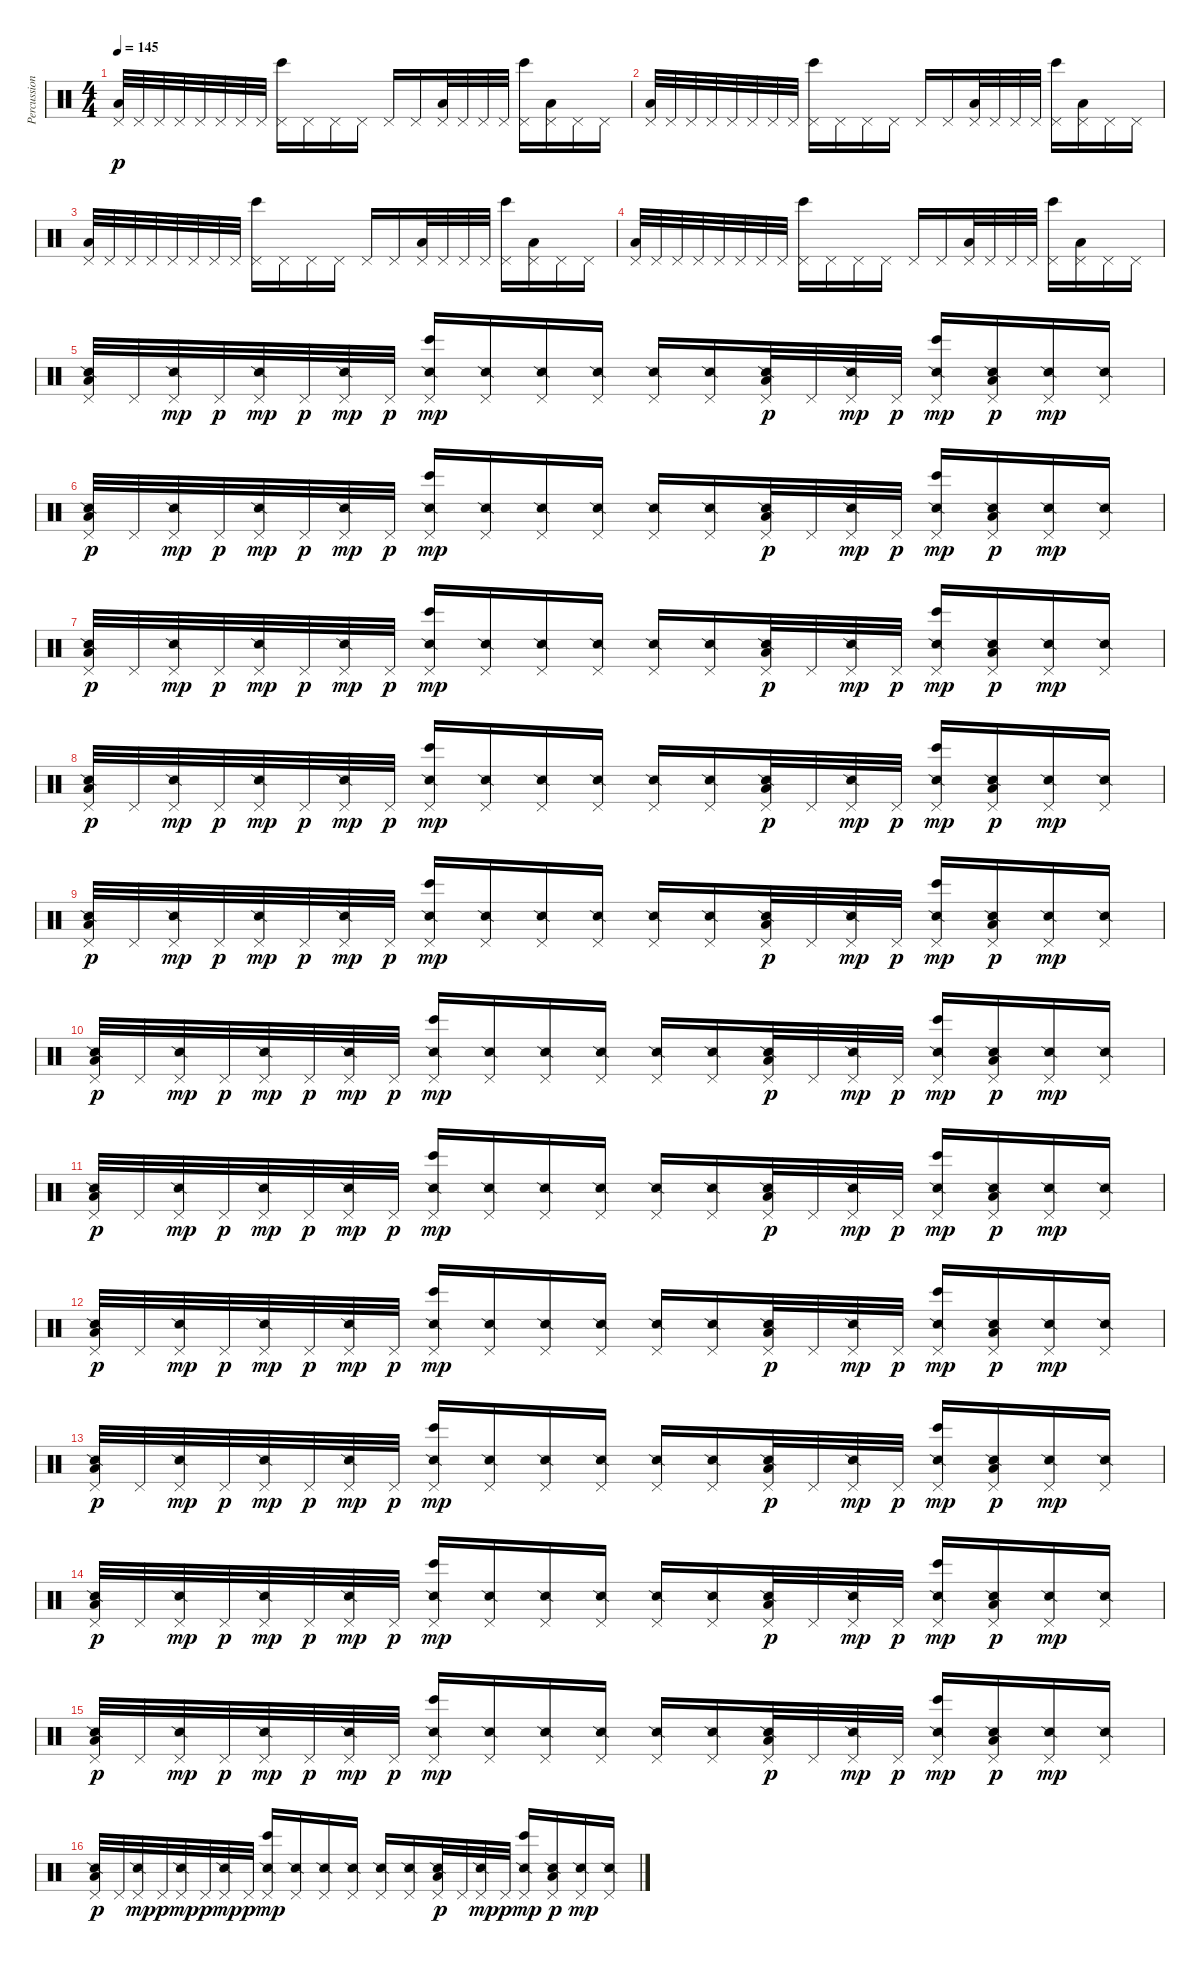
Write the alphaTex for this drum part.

\track ("Percussion" "Percussion") {instrument percussion}
\staff {score}
\articulation defaults
\ts (4 4)
\tempo 145
\clef neutral
\ks c
("Pedal Hi-Hat (hit)" "Low Tom (hit)").32{dy p} "Pedal Hi-Hat (hit)".32 "Pedal Hi-Hat (hit)".32 "Pedal Hi-Hat (hit)".32 "Pedal Hi-Hat (hit)".32 "Pedal Hi-Hat (hit)".32 "Pedal Hi-Hat (hit)".32 "Pedal Hi-Hat (hit)".32 ("Pedal Hi-Hat (hit)" "Bongo High (hit)").16 "Pedal Hi-Hat (hit)".16 "Pedal Hi-Hat (hit)".16 "Pedal Hi-Hat (hit)".16 "Pedal Hi-Hat (hit)".16 "Pedal Hi-Hat (hit)".16 ("Pedal Hi-Hat (hit)" "Low Tom (hit)").32 "Pedal Hi-Hat (hit)".32 "Pedal Hi-Hat (hit)".32 "Pedal Hi-Hat (hit)".32 ("Pedal Hi-Hat (hit)" "Bongo High (hit)").16 ("Pedal Hi-Hat (hit)" "Low Tom (hit)").16 "Pedal Hi-Hat (hit)".16 "Pedal Hi-Hat (hit)".16 |
("Pedal Hi-Hat (hit)" "Low Tom (hit)").32 "Pedal Hi-Hat (hit)".32 "Pedal Hi-Hat (hit)".32 "Pedal Hi-Hat (hit)".32 "Pedal Hi-Hat (hit)".32 "Pedal Hi-Hat (hit)".32 "Pedal Hi-Hat (hit)".32 "Pedal Hi-Hat (hit)".32 ("Pedal Hi-Hat (hit)" "Bongo High (hit)").16 "Pedal Hi-Hat (hit)".16 "Pedal Hi-Hat (hit)".16 "Pedal Hi-Hat (hit)".16 "Pedal Hi-Hat (hit)".16 "Pedal Hi-Hat (hit)".16 ("Pedal Hi-Hat (hit)" "Low Tom (hit)").32 "Pedal Hi-Hat (hit)".32 "Pedal Hi-Hat (hit)".32 "Pedal Hi-Hat (hit)".32 ("Pedal Hi-Hat (hit)" "Bongo High (hit)").16 ("Pedal Hi-Hat (hit)" "Low Tom (hit)").16 "Pedal Hi-Hat (hit)".16 "Pedal Hi-Hat (hit)".16 |
("Pedal Hi-Hat (hit)" "Low Tom (hit)").32 "Pedal Hi-Hat (hit)".32 "Pedal Hi-Hat (hit)".32 "Pedal Hi-Hat (hit)".32 "Pedal Hi-Hat (hit)".32 "Pedal Hi-Hat (hit)".32 "Pedal Hi-Hat (hit)".32 "Pedal Hi-Hat (hit)".32 ("Pedal Hi-Hat (hit)" "Bongo High (hit)").16 "Pedal Hi-Hat (hit)".16 "Pedal Hi-Hat (hit)".16 "Pedal Hi-Hat (hit)".16 "Pedal Hi-Hat (hit)".16 "Pedal Hi-Hat (hit)".16 ("Pedal Hi-Hat (hit)" "Low Tom (hit)").32 "Pedal Hi-Hat (hit)".32 "Pedal Hi-Hat (hit)".32 "Pedal Hi-Hat (hit)".32 ("Pedal Hi-Hat (hit)" "Bongo High (hit)").16 ("Pedal Hi-Hat (hit)" "Low Tom (hit)").16 "Pedal Hi-Hat (hit)".16 "Pedal Hi-Hat (hit)".16 |
("Pedal Hi-Hat (hit)" "Low Tom (hit)").32 "Pedal Hi-Hat (hit)".32 "Pedal Hi-Hat (hit)".32 "Pedal Hi-Hat (hit)".32 "Pedal Hi-Hat (hit)".32 "Pedal Hi-Hat (hit)".32 "Pedal Hi-Hat (hit)".32 "Pedal Hi-Hat (hit)".32 ("Pedal Hi-Hat (hit)" "Bongo High (hit)").16 "Pedal Hi-Hat (hit)".16 "Pedal Hi-Hat (hit)".16 "Pedal Hi-Hat (hit)".16 "Pedal Hi-Hat (hit)".16 "Pedal Hi-Hat (hit)".16 ("Pedal Hi-Hat (hit)" "Low Tom (hit)").32 "Pedal Hi-Hat (hit)".32 "Pedal Hi-Hat (hit)".32 "Pedal Hi-Hat (hit)".32 ("Pedal Hi-Hat (hit)" "Bongo High (hit)").16 ("Pedal Hi-Hat (hit)" "Low Tom (hit)").16 "Pedal Hi-Hat (hit)".16 "Pedal Hi-Hat (hit)".16 |
("Pedal Hi-Hat (hit)" "Snare (side stick) 2" "Low Tom (hit)").32 "Pedal Hi-Hat (hit)".32 ("Pedal Hi-Hat (hit)" "Snare (side stick) 2").32{dy mp} "Pedal Hi-Hat (hit)".32{dy p} ("Pedal Hi-Hat (hit)" "Snare (side stick) 2").32{dy mp} "Pedal Hi-Hat (hit)".32{dy p} ("Pedal Hi-Hat (hit)" "Snare (side stick) 2").32{dy mp} "Pedal Hi-Hat (hit)".32{dy p} ("Pedal Hi-Hat (hit)" "Bongo High (hit)" "Snare (side stick) 2").16{dy mp} ("Pedal Hi-Hat (hit)" "Snare (side stick) 2").16 ("Pedal Hi-Hat (hit)" "Snare (side stick) 2").16 ("Pedal Hi-Hat (hit)" "Snare (side stick) 2").16 ("Pedal Hi-Hat (hit)" "Snare (side stick) 2").16 ("Pedal Hi-Hat (hit)" "Snare (side stick) 2").16 ("Pedal Hi-Hat (hit)" "Snare (side stick) 2" "Low Tom (hit)").32{dy p} "Pedal Hi-Hat (hit)".32 ("Pedal Hi-Hat (hit)" "Snare (side stick) 2").32{dy mp} "Pedal Hi-Hat (hit)".32{dy p} ("Pedal Hi-Hat (hit)" "Bongo High (hit)" "Snare (side stick) 2").16{dy mp} ("Pedal Hi-Hat (hit)" "Snare (side stick) 2" "Low Tom (hit)").16{dy p} ("Pedal Hi-Hat (hit)" "Snare (side stick) 2").16{dy mp} ("Pedal Hi-Hat (hit)" "Snare (side stick) 2").16 |
("Pedal Hi-Hat (hit)" "Snare (side stick) 2" "Low Tom (hit)").32{dy p} "Pedal Hi-Hat (hit)".32 ("Pedal Hi-Hat (hit)" "Snare (side stick) 2").32{dy mp} "Pedal Hi-Hat (hit)".32{dy p} ("Pedal Hi-Hat (hit)" "Snare (side stick) 2").32{dy mp} "Pedal Hi-Hat (hit)".32{dy p} ("Pedal Hi-Hat (hit)" "Snare (side stick) 2").32{dy mp} "Pedal Hi-Hat (hit)".32{dy p} ("Pedal Hi-Hat (hit)" "Bongo High (hit)" "Snare (side stick) 2").16{dy mp} ("Pedal Hi-Hat (hit)" "Snare (side stick) 2").16 ("Pedal Hi-Hat (hit)" "Snare (side stick) 2").16 ("Pedal Hi-Hat (hit)" "Snare (side stick) 2").16 ("Pedal Hi-Hat (hit)" "Snare (side stick) 2").16 ("Pedal Hi-Hat (hit)" "Snare (side stick) 2").16 ("Pedal Hi-Hat (hit)" "Snare (side stick) 2" "Low Tom (hit)").32{dy p} "Pedal Hi-Hat (hit)".32 ("Pedal Hi-Hat (hit)" "Snare (side stick) 2").32{dy mp} "Pedal Hi-Hat (hit)".32{dy p} ("Pedal Hi-Hat (hit)" "Bongo High (hit)" "Snare (side stick) 2").16{dy mp} ("Pedal Hi-Hat (hit)" "Snare (side stick) 2" "Low Tom (hit)").16{dy p} ("Pedal Hi-Hat (hit)" "Snare (side stick) 2").16{dy mp} ("Pedal Hi-Hat (hit)" "Snare (side stick) 2").16 |
("Pedal Hi-Hat (hit)" "Snare (side stick) 2" "Low Tom (hit)").32{dy p} "Pedal Hi-Hat (hit)".32 ("Pedal Hi-Hat (hit)" "Snare (side stick) 2").32{dy mp} "Pedal Hi-Hat (hit)".32{dy p} ("Pedal Hi-Hat (hit)" "Snare (side stick) 2").32{dy mp} "Pedal Hi-Hat (hit)".32{dy p} ("Pedal Hi-Hat (hit)" "Snare (side stick) 2").32{dy mp} "Pedal Hi-Hat (hit)".32{dy p} ("Pedal Hi-Hat (hit)" "Bongo High (hit)" "Snare (side stick) 2").16{dy mp} ("Pedal Hi-Hat (hit)" "Snare (side stick) 2").16 ("Pedal Hi-Hat (hit)" "Snare (side stick) 2").16 ("Pedal Hi-Hat (hit)" "Snare (side stick) 2").16 ("Pedal Hi-Hat (hit)" "Snare (side stick) 2").16 ("Pedal Hi-Hat (hit)" "Snare (side stick) 2").16 ("Pedal Hi-Hat (hit)" "Snare (side stick) 2" "Low Tom (hit)").32{dy p} "Pedal Hi-Hat (hit)".32 ("Pedal Hi-Hat (hit)" "Snare (side stick) 2").32{dy mp} "Pedal Hi-Hat (hit)".32{dy p} ("Pedal Hi-Hat (hit)" "Bongo High (hit)" "Snare (side stick) 2").16{dy mp} ("Pedal Hi-Hat (hit)" "Snare (side stick) 2" "Low Tom (hit)").16{dy p} ("Pedal Hi-Hat (hit)" "Snare (side stick) 2").16{dy mp} ("Pedal Hi-Hat (hit)" "Snare (side stick) 2").16 |
("Pedal Hi-Hat (hit)" "Snare (side stick) 2" "Low Tom (hit)").32{dy p} "Pedal Hi-Hat (hit)".32 ("Pedal Hi-Hat (hit)" "Snare (side stick) 2").32{dy mp} "Pedal Hi-Hat (hit)".32{dy p} ("Pedal Hi-Hat (hit)" "Snare (side stick) 2").32{dy mp} "Pedal Hi-Hat (hit)".32{dy p} ("Pedal Hi-Hat (hit)" "Snare (side stick) 2").32{dy mp} "Pedal Hi-Hat (hit)".32{dy p} ("Pedal Hi-Hat (hit)" "Bongo High (hit)" "Snare (side stick) 2").16{dy mp} ("Pedal Hi-Hat (hit)" "Snare (side stick) 2").16 ("Pedal Hi-Hat (hit)" "Snare (side stick) 2").16 ("Pedal Hi-Hat (hit)" "Snare (side stick) 2").16 ("Pedal Hi-Hat (hit)" "Snare (side stick) 2").16 ("Pedal Hi-Hat (hit)" "Snare (side stick) 2").16 ("Pedal Hi-Hat (hit)" "Snare (side stick) 2" "Low Tom (hit)").32{dy p} "Pedal Hi-Hat (hit)".32 ("Pedal Hi-Hat (hit)" "Snare (side stick) 2").32{dy mp} "Pedal Hi-Hat (hit)".32{dy p} ("Pedal Hi-Hat (hit)" "Bongo High (hit)" "Snare (side stick) 2").16{dy mp} ("Pedal Hi-Hat (hit)" "Snare (side stick) 2" "Low Tom (hit)").16{dy p} ("Pedal Hi-Hat (hit)" "Snare (side stick) 2").16{dy mp} ("Pedal Hi-Hat (hit)" "Snare (side stick) 2").16 |
("Pedal Hi-Hat (hit)" "Snare (side stick) 2" "Low Tom (hit)").32{dy p} "Pedal Hi-Hat (hit)".32 ("Pedal Hi-Hat (hit)" "Snare (side stick) 2").32{dy mp} "Pedal Hi-Hat (hit)".32{dy p} ("Pedal Hi-Hat (hit)" "Snare (side stick) 2").32{dy mp} "Pedal Hi-Hat (hit)".32{dy p} ("Pedal Hi-Hat (hit)" "Snare (side stick) 2").32{dy mp} "Pedal Hi-Hat (hit)".32{dy p} ("Pedal Hi-Hat (hit)" "Bongo High (hit)" "Snare (side stick) 2").16{dy mp} ("Pedal Hi-Hat (hit)" "Snare (side stick) 2").16 ("Pedal Hi-Hat (hit)" "Snare (side stick) 2").16 ("Pedal Hi-Hat (hit)" "Snare (side stick) 2").16 ("Pedal Hi-Hat (hit)" "Snare (side stick) 2").16 ("Pedal Hi-Hat (hit)" "Snare (side stick) 2").16 ("Pedal Hi-Hat (hit)" "Snare (side stick) 2" "Low Tom (hit)").32{dy p} "Pedal Hi-Hat (hit)".32 ("Pedal Hi-Hat (hit)" "Snare (side stick) 2").32{dy mp} "Pedal Hi-Hat (hit)".32{dy p} ("Pedal Hi-Hat (hit)" "Bongo High (hit)" "Snare (side stick) 2").16{dy mp} ("Pedal Hi-Hat (hit)" "Snare (side stick) 2" "Low Tom (hit)").16{dy p} ("Pedal Hi-Hat (hit)" "Snare (side stick) 2").16{dy mp} ("Pedal Hi-Hat (hit)" "Snare (side stick) 2").16 |
("Pedal Hi-Hat (hit)" "Snare (side stick) 2" "Low Tom (hit)").32{dy p} "Pedal Hi-Hat (hit)".32 ("Pedal Hi-Hat (hit)" "Snare (side stick) 2").32{dy mp} "Pedal Hi-Hat (hit)".32{dy p} ("Pedal Hi-Hat (hit)" "Snare (side stick) 2").32{dy mp} "Pedal Hi-Hat (hit)".32{dy p} ("Pedal Hi-Hat (hit)" "Snare (side stick) 2").32{dy mp} "Pedal Hi-Hat (hit)".32{dy p} ("Pedal Hi-Hat (hit)" "Bongo High (hit)" "Snare (side stick) 2").16{dy mp} ("Pedal Hi-Hat (hit)" "Snare (side stick) 2").16 ("Pedal Hi-Hat (hit)" "Snare (side stick) 2").16 ("Pedal Hi-Hat (hit)" "Snare (side stick) 2").16 ("Pedal Hi-Hat (hit)" "Snare (side stick) 2").16 ("Pedal Hi-Hat (hit)" "Snare (side stick) 2").16 ("Pedal Hi-Hat (hit)" "Snare (side stick) 2" "Low Tom (hit)").32{dy p} "Pedal Hi-Hat (hit)".32 ("Pedal Hi-Hat (hit)" "Snare (side stick) 2").32{dy mp} "Pedal Hi-Hat (hit)".32{dy p} ("Pedal Hi-Hat (hit)" "Bongo High (hit)" "Snare (side stick) 2").16{dy mp} ("Pedal Hi-Hat (hit)" "Snare (side stick) 2" "Low Tom (hit)").16{dy p} ("Pedal Hi-Hat (hit)" "Snare (side stick) 2").16{dy mp} ("Pedal Hi-Hat (hit)" "Snare (side stick) 2").16 |
("Pedal Hi-Hat (hit)" "Snare (side stick) 2" "Low Tom (hit)").32{dy p} "Pedal Hi-Hat (hit)".32 ("Pedal Hi-Hat (hit)" "Snare (side stick) 2").32{dy mp} "Pedal Hi-Hat (hit)".32{dy p} ("Pedal Hi-Hat (hit)" "Snare (side stick) 2").32{dy mp} "Pedal Hi-Hat (hit)".32{dy p} ("Pedal Hi-Hat (hit)" "Snare (side stick) 2").32{dy mp} "Pedal Hi-Hat (hit)".32{dy p} ("Pedal Hi-Hat (hit)" "Bongo High (hit)" "Snare (side stick) 2").16{dy mp} ("Pedal Hi-Hat (hit)" "Snare (side stick) 2").16 ("Pedal Hi-Hat (hit)" "Snare (side stick) 2").16 ("Pedal Hi-Hat (hit)" "Snare (side stick) 2").16 ("Pedal Hi-Hat (hit)" "Snare (side stick) 2").16 ("Pedal Hi-Hat (hit)" "Snare (side stick) 2").16 ("Pedal Hi-Hat (hit)" "Snare (side stick) 2" "Low Tom (hit)").32{dy p} "Pedal Hi-Hat (hit)".32 ("Pedal Hi-Hat (hit)" "Snare (side stick) 2").32{dy mp} "Pedal Hi-Hat (hit)".32{dy p} ("Pedal Hi-Hat (hit)" "Bongo High (hit)" "Snare (side stick) 2").16{dy mp} ("Pedal Hi-Hat (hit)" "Snare (side stick) 2" "Low Tom (hit)").16{dy p} ("Pedal Hi-Hat (hit)" "Snare (side stick) 2").16{dy mp} ("Pedal Hi-Hat (hit)" "Snare (side stick) 2").16 |
("Pedal Hi-Hat (hit)" "Snare (side stick) 2" "Low Tom (hit)").32{dy p} "Pedal Hi-Hat (hit)".32 ("Pedal Hi-Hat (hit)" "Snare (side stick) 2").32{dy mp} "Pedal Hi-Hat (hit)".32{dy p} ("Pedal Hi-Hat (hit)" "Snare (side stick) 2").32{dy mp} "Pedal Hi-Hat (hit)".32{dy p} ("Pedal Hi-Hat (hit)" "Snare (side stick) 2").32{dy mp} "Pedal Hi-Hat (hit)".32{dy p} ("Pedal Hi-Hat (hit)" "Bongo High (hit)" "Snare (side stick) 2").16{dy mp} ("Pedal Hi-Hat (hit)" "Snare (side stick) 2").16 ("Pedal Hi-Hat (hit)" "Snare (side stick) 2").16 ("Pedal Hi-Hat (hit)" "Snare (side stick) 2").16 ("Pedal Hi-Hat (hit)" "Snare (side stick) 2").16 ("Pedal Hi-Hat (hit)" "Snare (side stick) 2").16 ("Pedal Hi-Hat (hit)" "Snare (side stick) 2" "Low Tom (hit)").32{dy p} "Pedal Hi-Hat (hit)".32 ("Pedal Hi-Hat (hit)" "Snare (side stick) 2").32{dy mp} "Pedal Hi-Hat (hit)".32{dy p} ("Pedal Hi-Hat (hit)" "Bongo High (hit)" "Snare (side stick) 2").16{dy mp} ("Pedal Hi-Hat (hit)" "Snare (side stick) 2" "Low Tom (hit)").16{dy p} ("Pedal Hi-Hat (hit)" "Snare (side stick) 2").16{dy mp} ("Pedal Hi-Hat (hit)" "Snare (side stick) 2").16 |
("Pedal Hi-Hat (hit)" "Snare (side stick) 2" "Low Tom (hit)").32{dy p} "Pedal Hi-Hat (hit)".32 ("Pedal Hi-Hat (hit)" "Snare (side stick) 2").32{dy mp} "Pedal Hi-Hat (hit)".32{dy p} ("Pedal Hi-Hat (hit)" "Snare (side stick) 2").32{dy mp} "Pedal Hi-Hat (hit)".32{dy p} ("Pedal Hi-Hat (hit)" "Snare (side stick) 2").32{dy mp} "Pedal Hi-Hat (hit)".32{dy p} ("Pedal Hi-Hat (hit)" "Bongo High (hit)" "Snare (side stick) 2").16{dy mp} ("Pedal Hi-Hat (hit)" "Snare (side stick) 2").16 ("Pedal Hi-Hat (hit)" "Snare (side stick) 2").16 ("Pedal Hi-Hat (hit)" "Snare (side stick) 2").16 ("Pedal Hi-Hat (hit)" "Snare (side stick) 2").16 ("Pedal Hi-Hat (hit)" "Snare (side stick) 2").16 ("Pedal Hi-Hat (hit)" "Snare (side stick) 2" "Low Tom (hit)").32{dy p} "Pedal Hi-Hat (hit)".32 ("Pedal Hi-Hat (hit)" "Snare (side stick) 2").32{dy mp} "Pedal Hi-Hat (hit)".32{dy p} ("Pedal Hi-Hat (hit)" "Bongo High (hit)" "Snare (side stick) 2").16{dy mp} ("Pedal Hi-Hat (hit)" "Snare (side stick) 2" "Low Tom (hit)").16{dy p} ("Pedal Hi-Hat (hit)" "Snare (side stick) 2").16{dy mp} ("Pedal Hi-Hat (hit)" "Snare (side stick) 2").16 |
("Pedal Hi-Hat (hit)" "Snare (side stick) 2" "Low Tom (hit)").32{dy p} "Pedal Hi-Hat (hit)".32 ("Pedal Hi-Hat (hit)" "Snare (side stick) 2").32{dy mp} "Pedal Hi-Hat (hit)".32{dy p} ("Pedal Hi-Hat (hit)" "Snare (side stick) 2").32{dy mp} "Pedal Hi-Hat (hit)".32{dy p} ("Pedal Hi-Hat (hit)" "Snare (side stick) 2").32{dy mp} "Pedal Hi-Hat (hit)".32{dy p} ("Pedal Hi-Hat (hit)" "Bongo High (hit)" "Snare (side stick) 2").16{dy mp} ("Pedal Hi-Hat (hit)" "Snare (side stick) 2").16 ("Pedal Hi-Hat (hit)" "Snare (side stick) 2").16 ("Pedal Hi-Hat (hit)" "Snare (side stick) 2").16 ("Pedal Hi-Hat (hit)" "Snare (side stick) 2").16 ("Pedal Hi-Hat (hit)" "Snare (side stick) 2").16 ("Pedal Hi-Hat (hit)" "Snare (side stick) 2" "Low Tom (hit)").32{dy p} "Pedal Hi-Hat (hit)".32 ("Pedal Hi-Hat (hit)" "Snare (side stick) 2").32{dy mp} "Pedal Hi-Hat (hit)".32{dy p} ("Pedal Hi-Hat (hit)" "Bongo High (hit)" "Snare (side stick) 2").16{dy mp} ("Pedal Hi-Hat (hit)" "Snare (side stick) 2" "Low Tom (hit)").16{dy p} ("Pedal Hi-Hat (hit)" "Snare (side stick) 2").16{dy mp} ("Pedal Hi-Hat (hit)" "Snare (side stick) 2").16 |
("Pedal Hi-Hat (hit)" "Snare (side stick) 2" "Low Tom (hit)").32{dy p} "Pedal Hi-Hat (hit)".32 ("Pedal Hi-Hat (hit)" "Snare (side stick) 2").32{dy mp} "Pedal Hi-Hat (hit)".32{dy p} ("Pedal Hi-Hat (hit)" "Snare (side stick) 2").32{dy mp} "Pedal Hi-Hat (hit)".32{dy p} ("Pedal Hi-Hat (hit)" "Snare (side stick) 2").32{dy mp} "Pedal Hi-Hat (hit)".32{dy p} ("Pedal Hi-Hat (hit)" "Bongo High (hit)" "Snare (side stick) 2").16{dy mp} ("Pedal Hi-Hat (hit)" "Snare (side stick) 2").16 ("Pedal Hi-Hat (hit)" "Snare (side stick) 2").16 ("Pedal Hi-Hat (hit)" "Snare (side stick) 2").16 ("Pedal Hi-Hat (hit)" "Snare (side stick) 2").16 ("Pedal Hi-Hat (hit)" "Snare (side stick) 2").16 ("Pedal Hi-Hat (hit)" "Snare (side stick) 2" "Low Tom (hit)").32{dy p} "Pedal Hi-Hat (hit)".32 ("Pedal Hi-Hat (hit)" "Snare (side stick) 2").32{dy mp} "Pedal Hi-Hat (hit)".32{dy p} ("Pedal Hi-Hat (hit)" "Bongo High (hit)" "Snare (side stick) 2").16{dy mp} ("Pedal Hi-Hat (hit)" "Snare (side stick) 2" "Low Tom (hit)").16{dy p} ("Pedal Hi-Hat (hit)" "Snare (side stick) 2").16{dy mp} ("Pedal Hi-Hat (hit)" "Snare (side stick) 2").16 |
("Pedal Hi-Hat (hit)" "Snare (side stick) 2" "Low Tom (hit)").32{dy p} "Pedal Hi-Hat (hit)".32 ("Pedal Hi-Hat (hit)" "Snare (side stick) 2").32{dy mp} "Pedal Hi-Hat (hit)".32{dy p} ("Pedal Hi-Hat (hit)" "Snare (side stick) 2").32{dy mp} "Pedal Hi-Hat (hit)".32{dy p} ("Pedal Hi-Hat (hit)" "Snare (side stick) 2").32{dy mp} "Pedal Hi-Hat (hit)".32{dy p} ("Pedal Hi-Hat (hit)" "Bongo High (hit)" "Snare (side stick) 2").16{dy mp} ("Pedal Hi-Hat (hit)" "Snare (side stick) 2").16 ("Pedal Hi-Hat (hit)" "Snare (side stick) 2").16 ("Pedal Hi-Hat (hit)" "Snare (side stick) 2").16 ("Pedal Hi-Hat (hit)" "Snare (side stick) 2").16 ("Pedal Hi-Hat (hit)" "Snare (side stick) 2").16 ("Pedal Hi-Hat (hit)" "Snare (side stick) 2" "Low Tom (hit)").32{dy p} "Pedal Hi-Hat (hit)".32 ("Pedal Hi-Hat (hit)" "Snare (side stick) 2").32{dy mp} "Pedal Hi-Hat (hit)".32{dy p} ("Pedal Hi-Hat (hit)" "Bongo High (hit)" "Snare (side stick) 2").16{dy mp} ("Pedal Hi-Hat (hit)" "Snare (side stick) 2" "Low Tom (hit)").16{dy p} ("Pedal Hi-Hat (hit)" "Snare (side stick) 2").16{dy mp} ("Pedal Hi-Hat (hit)" "Snare (side stick) 2").16
